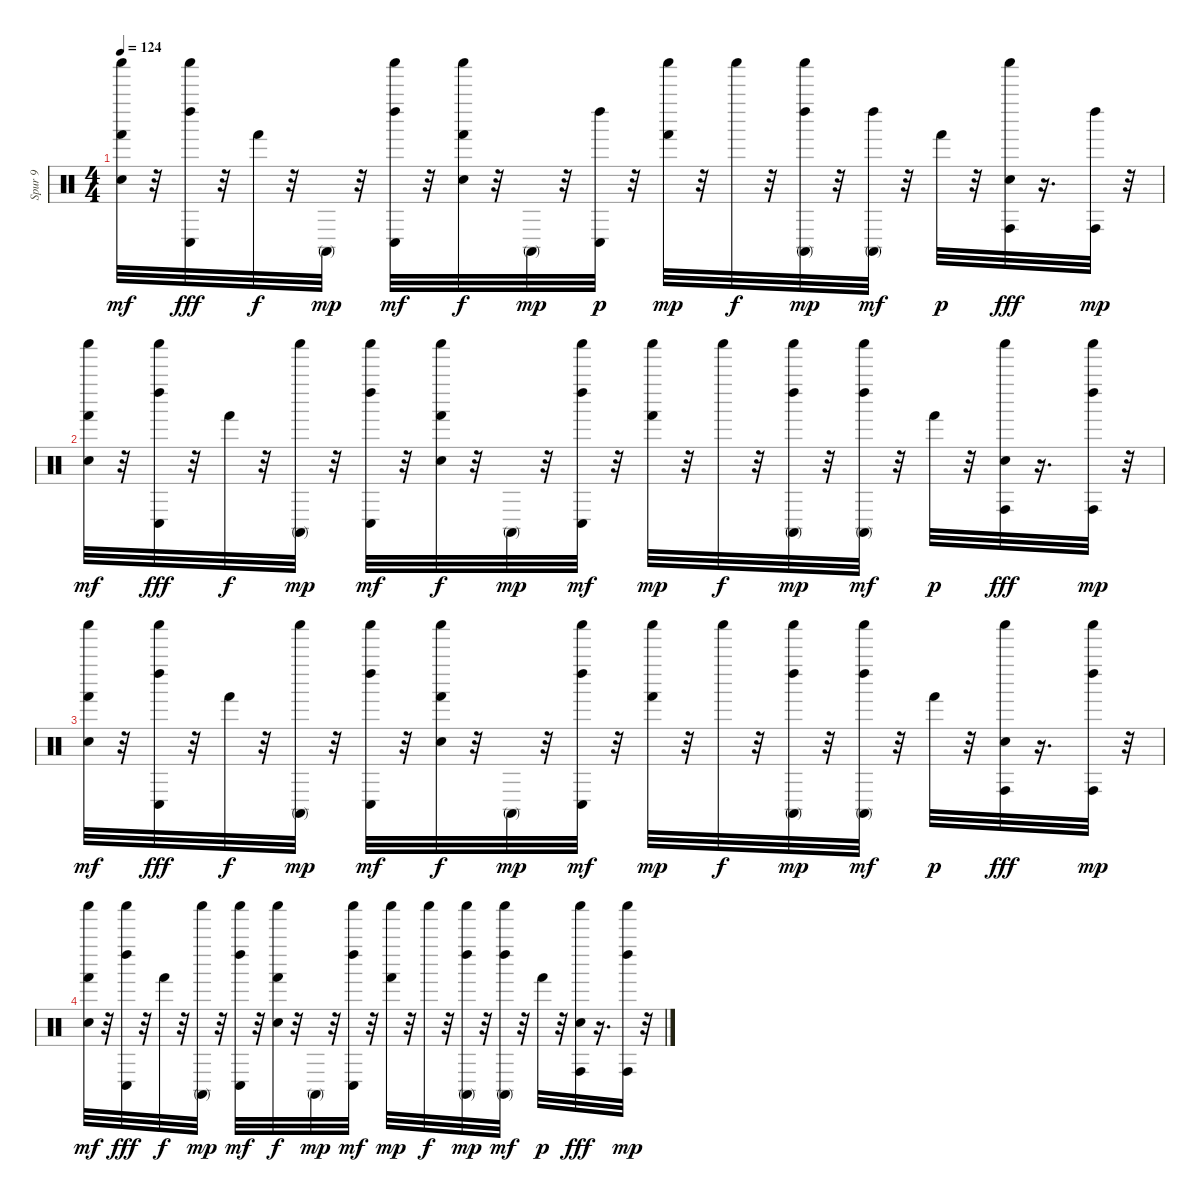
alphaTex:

\track ("Spur 9" "Spur 9") {instrument percussion}
\staff {score}
\articulation defaults
\ts (4 4)
\tempo 124
\clef neutral
\ks c
("Electric Snare (hit)" "Hand (hit)" "Shaker (hit)").32{dy mf} r.32 ("Conga low (hit)" "Left Maraca (hit)" "Shaker (hit)").32{dy fff} r.32 "Hand (hit)".32{dy f} r.32 "Conga high (mute)".32{dy mp} r.32 ("Conga low (hit)" "Left Maraca (hit)" "Shaker (hit)").32{dy mf} r.32 ("Electric Snare (hit)" "Hand (hit)" "Shaker (hit)").32{dy f} r.32 "Conga high (mute)".32{dy mp} r.32 ("Conga low (hit)" "Left Maraca (hit)").32{dy p} r.32 ("Hand (hit)" "Shaker (hit)").32{dy mp} r.32 "Shaker (hit)".32{dy f} r.32 ("Conga high (mute)" "Left Maraca (hit)" "Shaker (hit)").32{dy mp} r.32 ("Conga high (mute)" "Left Maraca (hit)").32{dy mf} r.32 "Hand (hit)".32{dy p} r.32 ("Electric Snare (hit)" "Conga high (hit)" "Shaker (hit)").32{dy fff} r.16{d} ("Conga high (hit)" "Left Maraca (hit)").32{dy mp} r.32 |
("Electric Snare (hit)" "Hand (hit)" "Shaker (hit)").32{dy mf} r.32 ("Conga low (hit)" "Left Maraca (hit)" "Shaker (hit)").32{dy fff} r.32 "Hand (hit)".32{dy f} r.32 ("Conga high (mute)" "Shaker (hit)").32{dy mp} r.32 ("Conga low (hit)" "Left Maraca (hit)" "Shaker (hit)").32{dy mf} r.32 ("Electric Snare (hit)" "Hand (hit)" "Shaker (hit)").32{dy f} r.32 "Conga high (mute)".32{dy mp} r.32 ("Conga low (hit)" "Left Maraca (hit)" "Shaker (hit)").32{dy mf} r.32 ("Hand (hit)" "Shaker (hit)").32{dy mp} r.32 "Shaker (hit)".32{dy f} r.32 ("Conga high (mute)" "Left Maraca (hit)" "Shaker (hit)").32{dy mp} r.32 ("Conga high (mute)" "Left Maraca (hit)" "Shaker (hit)").32{dy mf} r.32 "Hand (hit)".32{dy p} r.32 ("Electric Snare (hit)" "Conga high (hit)" "Shaker (hit)").32{dy fff} r.16{d} ("Conga high (hit)" "Left Maraca (hit)" "Shaker (hit)").32{dy mp} r.32 |
("Electric Snare (hit)" "Hand (hit)" "Shaker (hit)").32{dy mf} r.32 ("Conga low (hit)" "Left Maraca (hit)" "Shaker (hit)").32{dy fff} r.32 "Hand (hit)".32{dy f} r.32 ("Conga high (mute)" "Shaker (hit)").32{dy mp} r.32 ("Conga low (hit)" "Left Maraca (hit)" "Shaker (hit)").32{dy mf} r.32 ("Electric Snare (hit)" "Hand (hit)" "Shaker (hit)").32{dy f} r.32 "Conga high (mute)".32{dy mp} r.32 ("Conga low (hit)" "Left Maraca (hit)" "Shaker (hit)").32{dy mf} r.32 ("Hand (hit)" "Shaker (hit)").32{dy mp} r.32 "Shaker (hit)".32{dy f} r.32 ("Conga high (mute)" "Left Maraca (hit)" "Shaker (hit)").32{dy mp} r.32 ("Conga high (mute)" "Left Maraca (hit)" "Shaker (hit)").32{dy mf} r.32 "Hand (hit)".32{dy p} r.32 ("Electric Snare (hit)" "Conga high (hit)" "Shaker (hit)").32{dy fff} r.16{d} ("Conga high (hit)" "Left Maraca (hit)" "Shaker (hit)").32{dy mp} r.32 |
("Electric Snare (hit)" "Hand (hit)" "Shaker (hit)").32{dy mf} r.32 ("Conga low (hit)" "Left Maraca (hit)" "Shaker (hit)").32{dy fff} r.32 "Hand (hit)".32{dy f} r.32 ("Conga high (mute)" "Shaker (hit)").32{dy mp} r.32 ("Conga low (hit)" "Left Maraca (hit)" "Shaker (hit)").32{dy mf} r.32 ("Electric Snare (hit)" "Hand (hit)" "Shaker (hit)").32{dy f} r.32 "Conga high (mute)".32{dy mp} r.32 ("Conga low (hit)" "Left Maraca (hit)" "Shaker (hit)").32{dy mf} r.32 ("Hand (hit)" "Shaker (hit)").32{dy mp} r.32 "Shaker (hit)".32{dy f} r.32 ("Conga high (mute)" "Left Maraca (hit)" "Shaker (hit)").32{dy mp} r.32 ("Conga high (mute)" "Left Maraca (hit)" "Shaker (hit)").32{dy mf} r.32 "Hand (hit)".32{dy p} r.32 ("Electric Snare (hit)" "Conga high (hit)" "Shaker (hit)").32{dy fff} r.16{d} ("Conga high (hit)" "Left Maraca (hit)" "Shaker (hit)").32{dy mp} r.32
